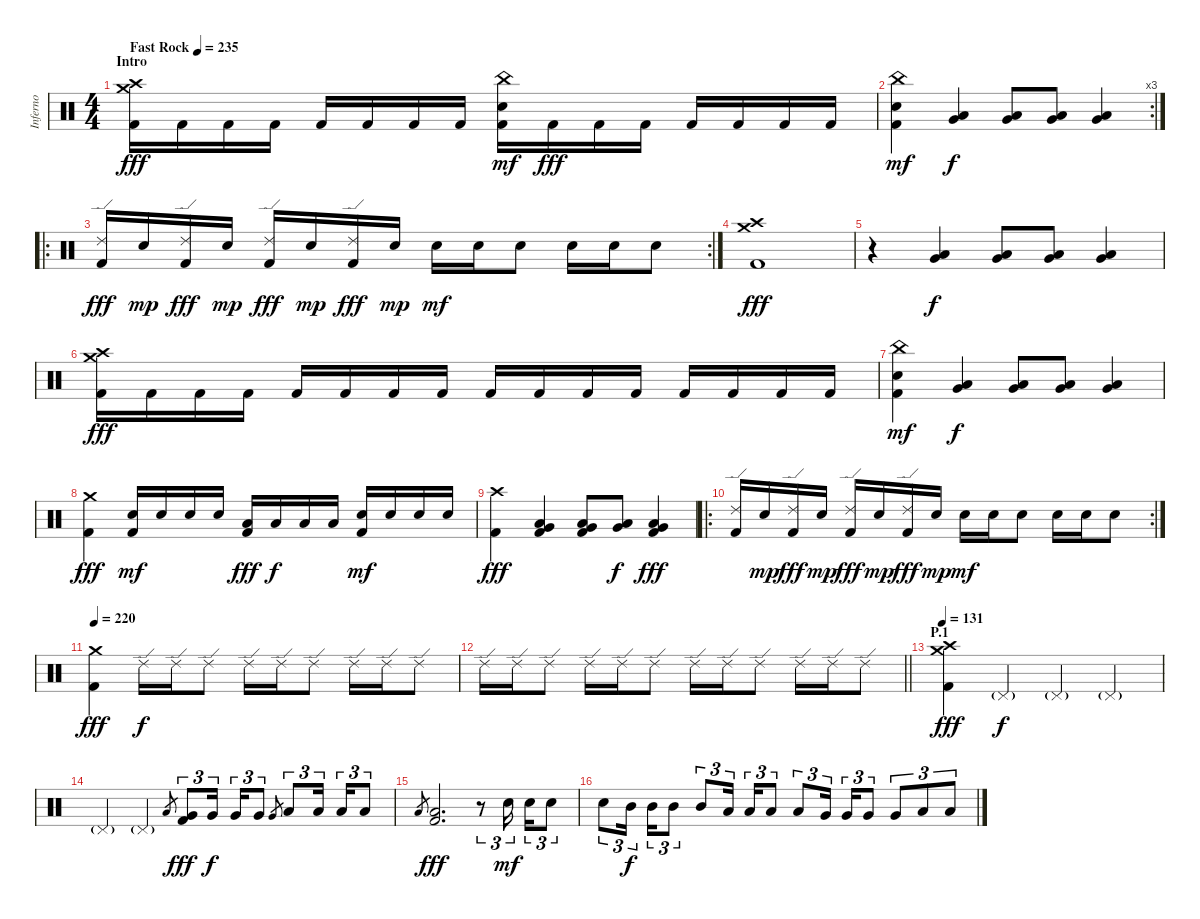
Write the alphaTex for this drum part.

\track ("Inferno" "Inferno") {instrument percussion}
\staff {score}
\articulation defaults
\ts (4 4)
\section ("" "Intro")
\tempo (235 "Fast Rock")
\clef neutral
\ks c
("Kick (hit) 2" "Crash medium (hit)" "Crash high (hit)").16{dy fff} "Kick (hit) 2".16 "Kick (hit) 2".16 "Kick (hit) 2".16 "Kick (hit) 2".16 "Kick (hit) 2".16 "Kick (hit) 2".16 "Kick (hit) 2".16 ("Kick (hit) 2" "Electric Snare (hit)" "China (hit)").16{dy mf} "Kick (hit) 2".16{dy fff} "Kick (hit) 2".16 "Kick (hit) 2".16 "Kick (hit) 2".16 "Kick (hit) 2".16 "Kick (hit) 2".16 "Kick (hit) 2".16 |
\rc 3
("Kick (hit) 2" "Electric Snare (hit)" "China (hit)").4{dy mf} ("Low Tom (hit)" "Very Low Tom (hit)").4{dy f} ("Low Tom (hit)" "Very Low Tom (hit)").8 ("Low Tom (hit)" "Very Low Tom (hit)").8 ("Low Tom (hit)" "Very Low Tom (hit)").4 |
\ro
\rc 2
("Kick (hit) 2" "Ride (edge) 2").16{dy fff} "Electric Snare (hit)".16{dy mp} ("Kick (hit) 2" "Ride (edge) 2").16{dy fff} "Electric Snare (hit)".16{dy mp} ("Kick (hit) 2" "Ride (edge) 2").16{dy fff} "Electric Snare (hit)".16{dy mp} ("Kick (hit) 2" "Ride (edge) 2").16{dy fff} "Electric Snare (hit)".16{dy mp} "Electric Snare (hit)".16{dy mf} "Electric Snare (hit)".16 "Electric Snare (hit)".8 "Electric Snare (hit)".16 "Electric Snare (hit)".16 "Electric Snare (hit)".8 |
("Kick (hit) 2" "Crash medium (hit)" "Crash high (hit)").1{dy fff} |
r.4 ("Low Tom (hit)" "Very Low Tom (hit)").4{dy f} ("Low Tom (hit)" "Very Low Tom (hit)").8 ("Low Tom (hit)" "Very Low Tom (hit)").8 ("Low Tom (hit)" "Very Low Tom (hit)").4 |
("Kick (hit) 2" "Crash medium (hit)" "Crash high (hit)").16{dy fff} "Kick (hit) 2".16 "Kick (hit) 2".16 "Kick (hit) 2".16 "Kick (hit) 2".16 "Kick (hit) 2".16 "Kick (hit) 2".16 "Kick (hit) 2".16 "Kick (hit) 2".16 "Kick (hit) 2".16 "Kick (hit) 2".16 "Kick (hit) 2".16 "Kick (hit) 2".16 "Kick (hit) 2".16 "Kick (hit) 2".16 "Kick (hit) 2".16 |
("Kick (hit) 2" "Electric Snare (hit)" "China (hit)").4{dy mf} ("Low Tom (hit)" "Very Low Tom (hit)").4{dy f} ("Low Tom (hit)" "Very Low Tom (hit)").8 ("Low Tom (hit)" "Very Low Tom (hit)").8 ("Low Tom (hit)" "Very Low Tom (hit)").4 |
("Kick (hit) 2" "Crash medium (hit)").4{dy fff} ("Kick (hit) 2" "Electric Snare (hit)").16{dy mf} "Electric Snare (hit)".16 "Electric Snare (hit)".16 "Electric Snare (hit)".16 ("Kick (hit) 2" "Low Tom (hit)").16{dy fff} "Low Tom (hit)".16{dy f} "Low Tom (hit)".16 "Low Tom (hit)".16 ("Kick (hit) 2" "Electric Snare (hit)").16{dy mf} "Electric Snare (hit)".16 "Electric Snare (hit)".16 "Electric Snare (hit)".16 |
("Kick (hit) 2" "Crash high (hit)").4{dy fff} ("Kick (hit) 2" "Low Tom (hit)" "Very Low Tom (hit)").4 ("Kick (hit) 2" "Low Tom (hit)" "Very Low Tom (hit)").8 ("Low Tom (hit)" "Very Low Tom (hit)").8{dy f} ("Kick (hit) 2" "Low Tom (hit)" "Very Low Tom (hit)").4{dy fff} |
\ro
\rc 2
("Kick (hit) 2" "Ride (edge) 2").16 "Electric Snare (hit)".16{dy mp} ("Kick (hit) 2" "Ride (edge) 2").16{dy fff} "Electric Snare (hit)".16{dy mp} ("Kick (hit) 2" "Ride (edge) 2").16{dy fff} "Electric Snare (hit)".16{dy mp} ("Kick (hit) 2" "Ride (edge) 2").16{dy fff} "Electric Snare (hit)".16{dy mp} "Electric Snare (hit)".16{dy mf} "Electric Snare (hit)".16 "Electric Snare (hit)".8 "Electric Snare (hit)".16 "Electric Snare (hit)".16 "Electric Snare (hit)".8 |
\tempo 220
("Kick (hit) 2" "Crash medium (hit)").4{dy fff} "Ride (edge) 2".16{dy f} "Ride (edge) 2".16 "Ride (edge) 2".8 "Ride (edge) 2".16 "Ride (edge) 2".16 "Ride (edge) 2".8 "Ride (edge) 2".16 "Ride (edge) 2".16 "Ride (edge) 2".8 |
\barLineRight lightlight "Ride (edge) 2".16 "Ride (edge) 2".16 "Ride (edge) 2".8 "Ride (edge) 2".16 "Ride (edge) 2".16 "Ride (edge) 2".8 "Ride (edge) 2".16 "Ride (edge) 2".16 "Ride (edge) 2".8 "Ride (edge) 2".16 "Ride (edge) 2".16 "Ride (edge) 2".8
|
\section ("" "P.1")
\tempo 131
("Kick (hit) 2" "Crash medium (hit)" "Crash high (hit)").4{dy fff} "Pedal Hi-Hat (hit)"{g}.4{dy f} "Pedal Hi-Hat (hit)"{g}.4 "Pedal Hi-Hat (hit)"{g}.4 |
"Pedal Hi-Hat (hit)"{g}.4 "Pedal Hi-Hat (hit)"{g}.4 "Low Tom (hit)".8{gr} ("Kick (hit) 2" "Very Low Tom (hit)").8{tu (3 2) dy fff} "Very Low Tom (hit)".16{tu (3 2) dy f beam splitsecondary} "Very Low Tom (hit)".16{tu (3 2)} "Very Low Tom (hit)".8{tu (3 2)} "Very Low Tom (hit)".8{gr} "Low Floor Tom (hit)".8{tu (3 2)} "Low Floor Tom (hit)".16{tu (3 2) beam splitsecondary} "Low Floor Tom (hit)".16{tu (3 2)} "Low Floor Tom (hit)".8{tu (3 2)} |
"Low Floor Tom (hit)".8{gr} ("Kick (hit) 2" "Low Floor Tom (hit)").2{d dy fff} r.8{tu (3 2)} "Electric Snare (hit)".16{tu (3 2) dy mf beam splitsecondary} "Electric Snare (hit)".16{tu (3 2)} "Electric Snare (hit)".8{tu (3 2)} |
"Electric Snare (hit)".8{tu (3 2)} "Mid Tom (hit)".16{tu (3 2) dy f beam splitsecondary} "Mid Tom (hit)".16{tu (3 2)} "Mid Tom (hit)".8{tu (3 2)} "Mid Tom (hit)".8{tu (3 2)} "Low Tom (hit)".16{tu (3 2) beam splitsecondary} "Low Tom (hit)".16{tu (3 2)} "Low Tom (hit)".8{tu (3 2)} "Low Tom (hit)".8{tu (3 2)} "Very Low Tom (hit)".16{tu (3 2) beam splitsecondary} "Very Low Tom (hit)".16{tu (3 2)} "Very Low Tom (hit)".8{tu (3 2)} "Very Low Tom (hit)".8{tu (3 2)} "Low Floor Tom (hit)".8{tu (3 2)} "Low Floor Tom (hit)".8{tu (3 2)}
